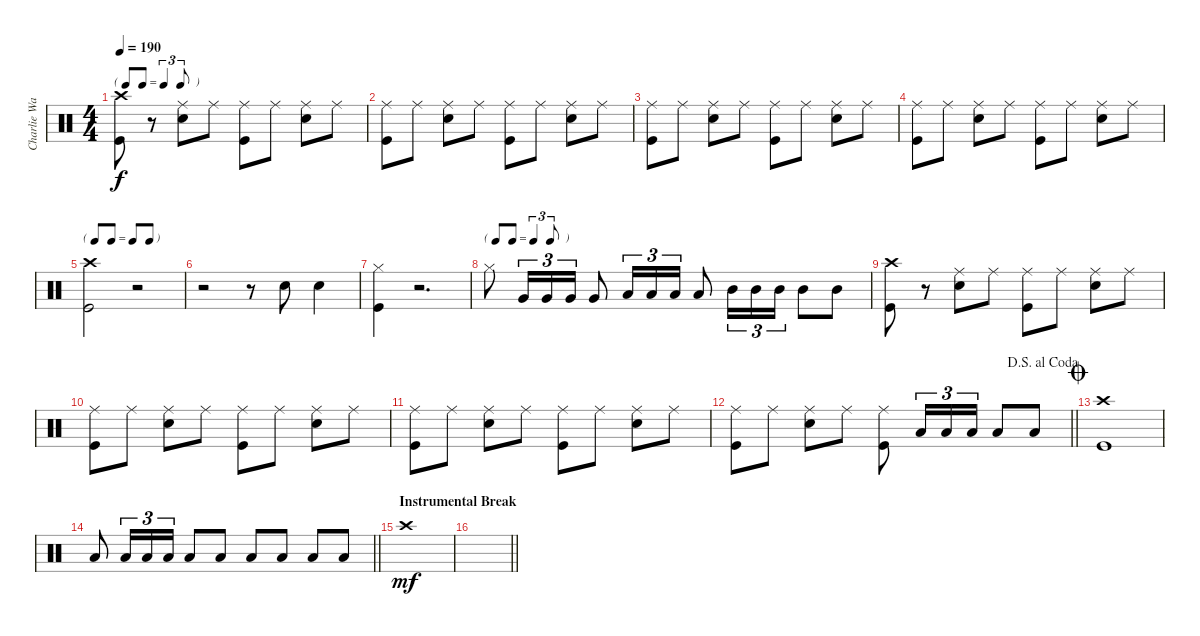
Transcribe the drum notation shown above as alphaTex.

\track ("Charlie Watts" "Charlie Wa") {instrument percussion}
\staff {score}
\articulation defaults
\ts (4 4)
\tf triplet8th
\tempo 190
\clef neutral
\ks c
("Crash high (hit)" "Kick (hit)").8{dy f} r.8 ("Ride (middle)" "Snare (hit) 2").8 "Ride (middle)".8 ("Ride (middle)" "Kick (hit)").8 "Ride (middle)".8 ("Ride (middle)" "Snare (hit) 2").8 "Ride (middle)".8 |
("Ride (middle)" "Kick (hit)").8 "Ride (middle)".8 ("Ride (middle)" "Snare (hit) 2").8 "Ride (middle)".8 ("Ride (middle)" "Kick (hit)").8 "Ride (middle)".8 ("Ride (middle)" "Snare (hit) 2").8 "Ride (middle)".8 |
("Ride (middle)" "Kick (hit)").8 "Ride (middle)".8 ("Ride (middle)" "Snare (hit) 2").8 "Ride (middle)".8 ("Ride (middle)" "Kick (hit)").8 "Ride (middle)".8 ("Ride (middle)" "Snare (hit) 2").8 "Ride (middle)".8 |
("Ride (middle)" "Kick (hit)").8 "Ride (middle)".8 ("Ride (middle)" "Snare (hit) 2").8 "Ride (middle)".8 ("Ride (middle)" "Kick (hit)").8 "Ride (middle)".8 ("Ride (middle)" "Snare (hit) 2").8 "Ride (middle)".8 |
\tf none
("Crash high (hit)" "Kick (hit)").2 r.2 |
r.2 r.8 "Snare (hit) 2".8 "Snare (hit) 2".4 |
("Hi-Hat (closed)" "Kick (hit)").4 r.2{d} |
\tf triplet8th "Hi-Hat (closed)".8 "Very Low Tom (hit)".16{tu (3 2)} "Very Low Tom (hit)".16{tu (3 2)} "Very Low Tom (hit)".16{tu (3 2)} "Very Low Tom (hit)".8 "Low Tom (hit)".16{tu (3 2)} "Low Tom (hit)".16{tu (3 2)} "Low Tom (hit)".16{tu (3 2)} "Low Tom (hit)".8 "Mid Tom (hit)".16{tu (3 2)} "Mid Tom (hit)".16{tu (3 2)} "Mid Tom (hit)".16{tu (3 2)} "Mid Tom (hit)".8 "Mid Tom (hit)".8
|
("Crash high (hit)" "Kick (hit)").8 r.8 ("Ride (middle)" "Snare (hit) 2").8 "Ride (middle)".8 ("Ride (middle)" "Kick (hit)").8 "Ride (middle)".8 ("Ride (middle)" "Snare (hit) 2").8 "Ride (middle)".8 |
("Ride (middle)" "Kick (hit)").8 "Ride (middle)".8 ("Ride (middle)" "Snare (hit) 2").8 "Ride (middle)".8 ("Ride (middle)" "Kick (hit)").8 "Ride (middle)".8 ("Ride (middle)" "Snare (hit) 2").8 "Ride (middle)".8 |
("Ride (middle)" "Kick (hit)").8 "Ride (middle)".8 ("Ride (middle)" "Snare (hit) 2").8 "Ride (middle)".8 ("Ride (middle)" "Kick (hit)").8 "Ride (middle)".8 ("Ride (middle)" "Snare (hit) 2").8 "Ride (middle)".8 |
\jump dalsegnoalcoda
\barLineRight lightlight
("Ride (middle)" "Kick (hit)").8 "Ride (middle)".8 ("Ride (middle)" "Snare (hit) 2").8 "Ride (middle)".8 ("Ride (middle)" "Kick (hit)").8 "Low Tom (hit)".16{tu (3 2)} "Low Tom (hit)".16{tu (3 2)} "Low Tom (hit)".16{tu (3 2)} "Low Tom (hit)".8 "Low Tom (hit)".8 |
\jump coda
("Crash high (hit)" "Kick (hit)").1 |
\barLineRight lightlight "Low Tom (hit)".8 "Low Tom (hit)".16{tu (3 2)} "Low Tom (hit)".16{tu (3 2)} "Low Tom (hit)".16{tu (3 2)} "Low Tom (hit)".8 "Low Tom (hit)".8 "Low Tom (hit)".8 "Low Tom (hit)".8 "Low Tom (hit)".8 "Low Tom (hit)".8
|
\section ("" "Instrumental Break")
"Crash high (hit)".1{dy mf} |
\barLineRight lightlight
